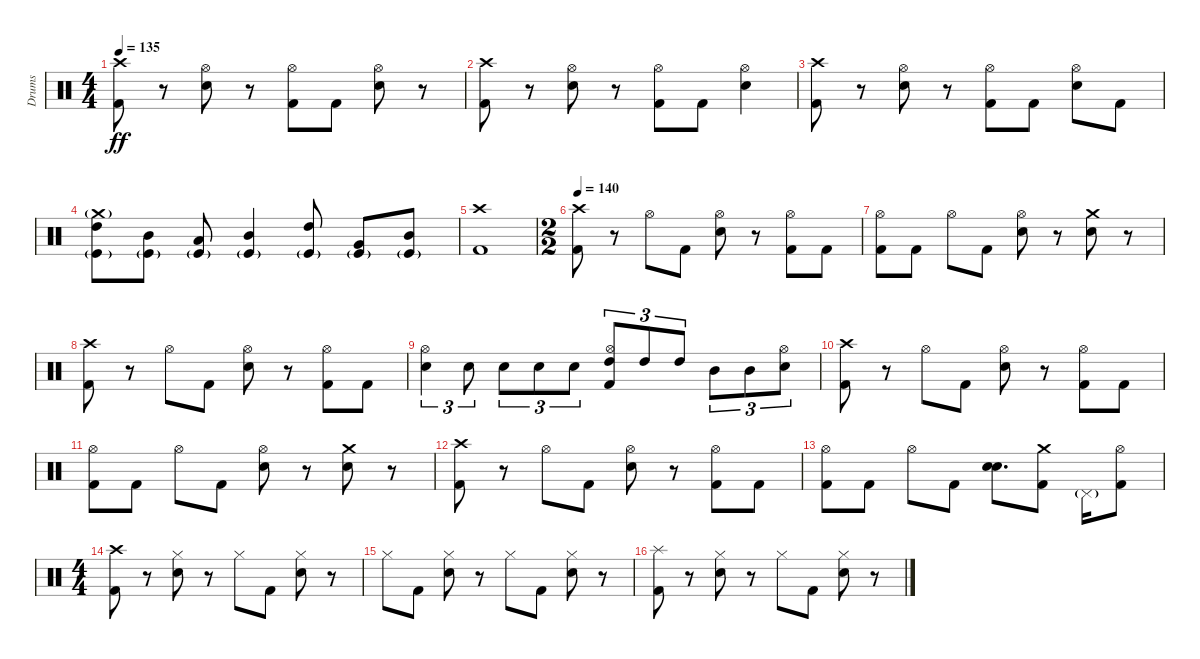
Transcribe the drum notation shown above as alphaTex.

\track ("Drums" "Drums") {instrument percussion}
\staff {score}
\articulation defaults
\ts (4 4)
\tempo 135
\clef neutral
\ks c
("Crash high (hit)" "Kick (hit) 2").8{dy ff} r.8 ("Hi-Hat (open)" "Snare (hit) 2").8 r.8 ("Hi-Hat (open)" "Kick (hit) 2").8 "Kick (hit) 2".8 ("Hi-Hat (open)" "Snare (hit) 2").8 r.8 |
("Crash high (hit)" "Kick (hit) 2").8 r.8 ("Hi-Hat (open)" "Snare (hit) 2").8 r.8 ("Hi-Hat (open)" "Kick (hit) 2").8 "Kick (hit) 2".8 ("Hi-Hat (open)" "Snare (hit) 2").4 |
("Crash high (hit)" "Kick (hit) 2").8 r.8 ("Hi-Hat (open)" "Snare (hit) 2").8 r.8 ("Hi-Hat (open)" "Kick (hit) 2").8 "Kick (hit) 2".8 ("Hi-Hat (open)" "Snare (hit) 2").8 "Kick (hit) 2".8 |
("Crash medium (hit)"{g} "High Tom (hit)" "Kick (hit)"{g}).8 ("Mid Tom (hit)" "Kick (hit)"{g}).8 ("Low Tom (hit)" "Kick (hit)"{g}).8 ("Mid Tom (hit)" "Kick (hit)"{g}).4 ("High Tom (hit)" "Kick (hit)"{g}).8 ("Very Low Tom (hit)" "Kick (hit)"{g}).8 ("Mid Tom (hit)" "Kick (hit)"{g}).8 |
("Crash high (hit)" "Kick (hit) 2").1 |
\ts (2 2)
\tempo 140
("Crash high (hit)" "Kick (hit) 2").8 r.8 "Hi-Hat (open)".8 "Kick (hit) 2".8 ("Hi-Hat (open)" "Snare (hit) 2").8 r.8 ("Hi-Hat (open)" "Kick (hit) 2").8 "Kick (hit) 2".8 |
("Hi-Hat (open)" "Kick (hit) 2").8 "Kick (hit) 2".8 "Hi-Hat (open)".8 "Kick (hit) 2".8 ("Hi-Hat (open)" "Snare (hit) 2").8 r.8 ("Crash medium (hit)" "Snare (hit) 2").8 r.8 |
("Crash high (hit)" "Kick (hit) 2").8 r.8 "Hi-Hat (open)".8 "Kick (hit) 2".8 ("Hi-Hat (open)" "Snare (hit) 2").8 r.8 ("Hi-Hat (open)" "Kick (hit) 2").8 "Kick (hit) 2".8 |
("Hi-Hat (open)" "Snare (hit) 2").4{tu (3 2)} "Snare (hit) 2".8{tu (3 2)} "Snare (hit) 2".8{tu (3 2)} "Snare (hit) 2".8{tu (3 2)} "Snare (hit) 2".8{tu (3 2)} ("Hi-Hat (open)" "High Tom (hit)" "Kick (hit) 2").8{tu (3 2)} "High Tom (hit)".8{tu (3 2)} "High Tom (hit)".8{tu (3 2)} "Mid Tom (hit)".8{tu (3 2)} "Mid Tom (hit)".8{tu (3 2)} ("Hi-Hat (open)" "Snare (hit) 2").8{tu (3 2)} |
("Crash high (hit)" "Kick (hit) 2").8 r.8 "Hi-Hat (open)".8 "Kick (hit) 2".8 ("Hi-Hat (open)" "Snare (hit) 2").8 r.8 ("Hi-Hat (open)" "Kick (hit) 2").8 "Kick (hit) 2".8 |
("Hi-Hat (open)" "Kick (hit) 2").8 "Kick (hit) 2".8 "Hi-Hat (open)".8 "Kick (hit) 2".8 ("Hi-Hat (open)" "Snare (hit) 2").8 r.8 ("Crash medium (hit)" "Snare (hit) 2").8 r.8 |
("Crash high (hit)" "Kick (hit) 2").8 r.8 "Hi-Hat (open)".8 "Kick (hit) 2".8 ("Hi-Hat (open)" "Snare (hit) 2").8 r.8 ("Hi-Hat (open)" "Kick (hit) 2").8 "Kick (hit) 2".8 |
("Hi-Hat (open)" "Kick (hit) 2").8 "Kick (hit) 2".8 "Hi-Hat (open)".8 "Kick (hit) 2".8 ("Snare (hit) 2" "Snare (hit) 2").8{d bd 240} ("Crash medium (hit)" "Kick (hit) 2").8 "Pedal Hi-Hat (hit)"{g}.16 ("Hi-Hat (open)" "Kick (hit) 2").8 |
\ts (4 4)
("Crash high (hit)" "Kick (hit) 2").8 r.8 ("Hi-Hat (closed)" "Snare (hit) 2").8 r.8 "Hi-Hat (closed)".8 "Kick (hit) 2".8 ("Hi-Hat (closed)" "Snare (hit) 2").8 r.8 |
"Hi-Hat (closed)".8 "Kick (hit) 2".8 ("Hi-Hat (closed)" "Snare (hit) 2").8 r.8 "Hi-Hat (closed)".8 "Kick (hit) 2".8 ("Hi-Hat (closed)" "Snare (hit) 2").8 r.8 |
("Splash (hit)" "Kick (hit) 2").8 r.8 ("Hi-Hat (closed)" "Snare (hit) 2").8 r.8 "Hi-Hat (closed)".8 "Kick (hit) 2".8 ("Hi-Hat (closed)" "Snare (hit) 2").8 r.8
